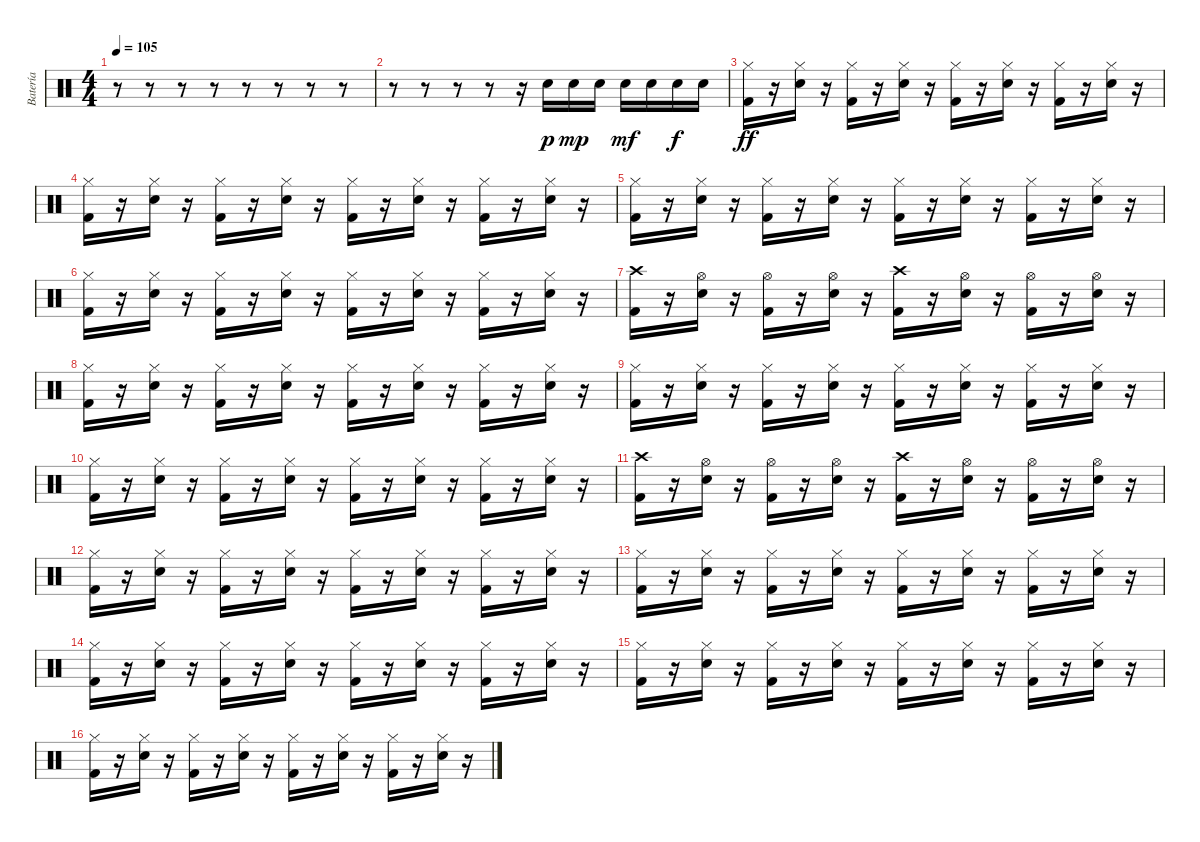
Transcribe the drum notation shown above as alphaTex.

\track ("Batería" "Batería") {instrument percussion}
\staff {score}
\articulation defaults
\ts (4 4)
\tempo 105
\clef neutral
\ks c
r.8{dy p} r.8 r.8 r.8 r.8 r.8 r.8 r.8 |
r.8 r.8 r.8 r.8 r.16 "Electric Snare (hit)".16 "Electric Snare (hit)".16{dy mp} "Electric Snare (hit)".16 "Electric Snare (hit)".16{dy mf} "Electric Snare (hit)".16 "Electric Snare (hit)".16{dy f} "Electric Snare (hit)".16 |
("Hi-Hat (closed)" "Kick (hit) 2").16{dy ff} r.16 ("Hi-Hat (closed)" "Electric Snare (hit)").16 r.16 ("Hi-Hat (closed)" "Kick (hit) 2").16 r.16 ("Hi-Hat (closed)" "Electric Snare (hit)").16 r.16 ("Hi-Hat (closed)" "Kick (hit) 2").16 r.16 ("Hi-Hat (closed)" "Electric Snare (hit)").16 r.16 ("Hi-Hat (closed)" "Kick (hit) 2").16 r.16 ("Hi-Hat (closed)" "Electric Snare (hit)").16 r.16 |
("Hi-Hat (closed)" "Kick (hit) 2").16 r.16 ("Hi-Hat (closed)" "Electric Snare (hit)").16 r.16 ("Hi-Hat (closed)" "Kick (hit) 2").16 r.16 ("Hi-Hat (closed)" "Electric Snare (hit)").16 r.16 ("Hi-Hat (closed)" "Kick (hit) 2").16 r.16 ("Hi-Hat (closed)" "Electric Snare (hit)").16 r.16 ("Hi-Hat (closed)" "Kick (hit) 2").16 r.16 ("Hi-Hat (closed)" "Electric Snare (hit)").16 r.16 |
("Hi-Hat (closed)" "Kick (hit) 2").16 r.16 ("Hi-Hat (closed)" "Electric Snare (hit)").16 r.16 ("Hi-Hat (closed)" "Kick (hit) 2").16 r.16 ("Hi-Hat (closed)" "Electric Snare (hit)").16 r.16 ("Hi-Hat (closed)" "Kick (hit) 2").16 r.16 ("Hi-Hat (closed)" "Electric Snare (hit)").16 r.16 ("Hi-Hat (closed)" "Kick (hit) 2").16 r.16 ("Hi-Hat (closed)" "Electric Snare (hit)").16 r.16 |
("Hi-Hat (closed)" "Kick (hit) 2").16 r.16 ("Hi-Hat (closed)" "Electric Snare (hit)").16 r.16 ("Hi-Hat (closed)" "Kick (hit) 2").16 r.16 ("Hi-Hat (closed)" "Electric Snare (hit)").16 r.16 ("Hi-Hat (closed)" "Kick (hit) 2").16 r.16 ("Hi-Hat (closed)" "Electric Snare (hit)").16 r.16 ("Hi-Hat (closed)" "Kick (hit) 2").16 r.16 ("Hi-Hat (closed)" "Electric Snare (hit)").16 r.16 |
("Crash high (hit)" "Kick (hit) 2").16 r.16 ("Hi-Hat (open)" "Electric Snare (hit)").16 r.16 ("Hi-Hat (open)" "Kick (hit) 2").16 r.16 ("Hi-Hat (open)" "Electric Snare (hit)").16 r.16 ("Crash high (hit)" "Kick (hit) 2").16 r.16 ("Hi-Hat (open)" "Electric Snare (hit)").16 r.16 ("Hi-Hat (open)" "Kick (hit) 2").16 r.16 ("Hi-Hat (open)" "Electric Snare (hit)").16 r.16 |
("Hi-Hat (closed)" "Kick (hit) 2").16 r.16 ("Hi-Hat (closed)" "Electric Snare (hit)").16 r.16 ("Hi-Hat (closed)" "Kick (hit) 2").16 r.16 ("Hi-Hat (closed)" "Electric Snare (hit)").16 r.16 ("Hi-Hat (closed)" "Kick (hit) 2").16 r.16 ("Hi-Hat (closed)" "Electric Snare (hit)").16 r.16 ("Hi-Hat (closed)" "Kick (hit) 2").16 r.16 ("Hi-Hat (closed)" "Electric Snare (hit)").16 r.16 |
("Hi-Hat (closed)" "Kick (hit) 2").16 r.16 ("Hi-Hat (closed)" "Electric Snare (hit)").16 r.16 ("Hi-Hat (closed)" "Kick (hit) 2").16 r.16 ("Hi-Hat (closed)" "Electric Snare (hit)").16 r.16 ("Hi-Hat (closed)" "Kick (hit) 2").16 r.16 ("Hi-Hat (closed)" "Electric Snare (hit)").16 r.16 ("Hi-Hat (closed)" "Kick (hit) 2").16 r.16 ("Hi-Hat (closed)" "Electric Snare (hit)").16 r.16 |
("Hi-Hat (closed)" "Kick (hit) 2").16 r.16 ("Hi-Hat (closed)" "Electric Snare (hit)").16 r.16 ("Hi-Hat (closed)" "Kick (hit) 2").16 r.16 ("Hi-Hat (closed)" "Electric Snare (hit)").16 r.16 ("Hi-Hat (closed)" "Kick (hit) 2").16 r.16 ("Hi-Hat (closed)" "Electric Snare (hit)").16 r.16 ("Hi-Hat (closed)" "Kick (hit) 2").16 r.16 ("Hi-Hat (closed)" "Electric Snare (hit)").16 r.16 |
("Crash high (hit)" "Kick (hit) 2").16 r.16 ("Hi-Hat (open)" "Electric Snare (hit)").16 r.16 ("Hi-Hat (open)" "Kick (hit) 2").16 r.16 ("Hi-Hat (open)" "Electric Snare (hit)").16 r.16 ("Crash high (hit)" "Kick (hit) 2").16 r.16 ("Hi-Hat (open)" "Electric Snare (hit)").16 r.16 ("Hi-Hat (open)" "Kick (hit) 2").16 r.16 ("Hi-Hat (open)" "Electric Snare (hit)").16 r.16 |
("Hi-Hat (closed)" "Kick (hit) 2").16 r.16 ("Hi-Hat (closed)" "Electric Snare (hit)").16 r.16 ("Hi-Hat (closed)" "Kick (hit) 2").16 r.16 ("Hi-Hat (closed)" "Electric Snare (hit)").16 r.16 ("Hi-Hat (closed)" "Kick (hit) 2").16 r.16 ("Hi-Hat (closed)" "Electric Snare (hit)").16 r.16 ("Hi-Hat (closed)" "Kick (hit) 2").16 r.16 ("Hi-Hat (closed)" "Electric Snare (hit)").16 r.16 |
("Hi-Hat (closed)" "Kick (hit) 2").16 r.16 ("Hi-Hat (closed)" "Electric Snare (hit)").16 r.16 ("Hi-Hat (closed)" "Kick (hit) 2").16 r.16 ("Hi-Hat (closed)" "Electric Snare (hit)").16 r.16 ("Hi-Hat (closed)" "Kick (hit) 2").16 r.16 ("Hi-Hat (closed)" "Electric Snare (hit)").16 r.16 ("Hi-Hat (closed)" "Kick (hit) 2").16 r.16 ("Hi-Hat (closed)" "Electric Snare (hit)").16 r.16 |
("Hi-Hat (closed)" "Kick (hit) 2").16 r.16 ("Hi-Hat (closed)" "Electric Snare (hit)").16 r.16 ("Hi-Hat (closed)" "Kick (hit) 2").16 r.16 ("Hi-Hat (closed)" "Electric Snare (hit)").16 r.16 ("Hi-Hat (closed)" "Kick (hit) 2").16 r.16 ("Hi-Hat (closed)" "Electric Snare (hit)").16 r.16 ("Hi-Hat (closed)" "Kick (hit) 2").16 r.16 ("Hi-Hat (closed)" "Electric Snare (hit)").16 r.16 |
("Hi-Hat (closed)" "Kick (hit) 2").16 r.16 ("Hi-Hat (closed)" "Electric Snare (hit)").16 r.16 ("Hi-Hat (closed)" "Kick (hit) 2").16 r.16 ("Hi-Hat (closed)" "Electric Snare (hit)").16 r.16 ("Hi-Hat (closed)" "Kick (hit) 2").16 r.16 ("Hi-Hat (closed)" "Electric Snare (hit)").16 r.16 ("Hi-Hat (closed)" "Kick (hit) 2").16 r.16 ("Hi-Hat (closed)" "Electric Snare (hit)").16 r.16 |
("Hi-Hat (closed)" "Kick (hit) 2").16 r.16 ("Hi-Hat (closed)" "Electric Snare (hit)").16 r.16 ("Hi-Hat (closed)" "Kick (hit) 2").16 r.16 ("Hi-Hat (closed)" "Electric Snare (hit)").16 r.16 ("Hi-Hat (closed)" "Kick (hit) 2").16 r.16 ("Hi-Hat (closed)" "Electric Snare (hit)").16 r.16 ("Hi-Hat (closed)" "Kick (hit) 2").16 r.16 ("Hi-Hat (closed)" "Electric Snare (hit)").16 r.16
